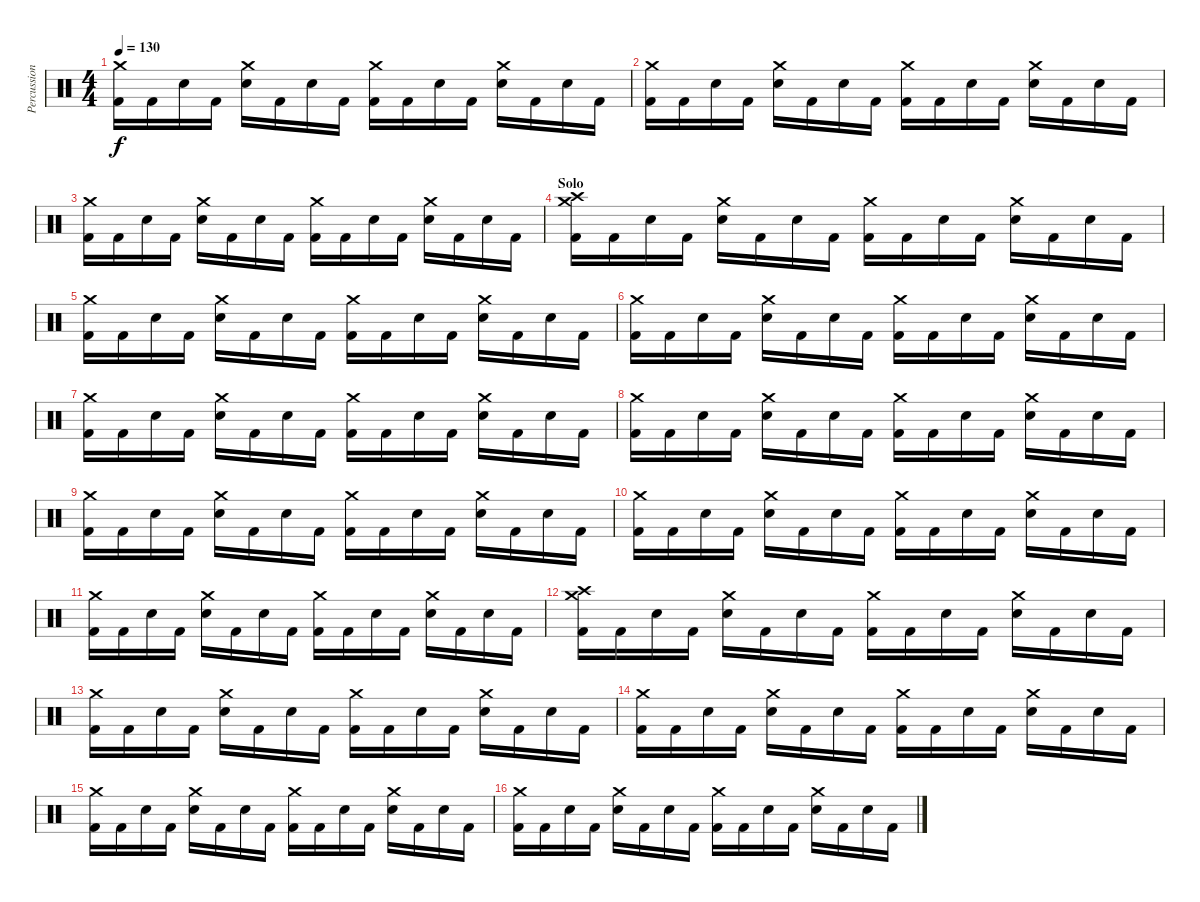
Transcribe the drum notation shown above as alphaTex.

\track ("Percussion" "Percussion") {instrument percussion}
\staff {score}
\articulation defaults
\ts (4 4)
\tempo 130
\clef neutral
\ks c
("Crash medium (hit)" "Kick (hit) 2").16{dy f} "Kick (hit) 2".16 "Snare (hit) 2".16 "Kick (hit) 2".16 ("Crash medium (hit)" "Snare (hit) 2").16 "Kick (hit) 2".16 "Snare (hit) 2".16 "Kick (hit) 2".16 ("Crash medium (hit)" "Kick (hit) 2").16 "Kick (hit) 2".16 "Snare (hit) 2".16 "Kick (hit) 2".16 ("Crash medium (hit)" "Snare (hit) 2").16 "Kick (hit) 2".16 "Snare (hit) 2".16 "Kick (hit) 2".16 |
("Crash medium (hit)" "Kick (hit) 2").16 "Kick (hit) 2".16 "Snare (hit) 2".16 "Kick (hit) 2".16 ("Crash medium (hit)" "Snare (hit) 2").16 "Kick (hit) 2".16 "Snare (hit) 2".16 "Kick (hit) 2".16 ("Crash medium (hit)" "Kick (hit) 2").16 "Kick (hit) 2".16 "Snare (hit) 2".16 "Kick (hit) 2".16 ("Crash medium (hit)" "Snare (hit) 2").16 "Kick (hit) 2".16 "Snare (hit) 2".16 "Kick (hit) 2".16 |
("Crash medium (hit)" "Kick (hit) 2").16 "Kick (hit) 2".16 "Snare (hit) 2".16 "Kick (hit) 2".16 ("Crash medium (hit)" "Snare (hit) 2").16 "Kick (hit) 2".16 "Snare (hit) 2".16 "Kick (hit) 2".16 ("Crash medium (hit)" "Kick (hit) 2").16 "Kick (hit) 2".16 "Snare (hit) 2".16 "Kick (hit) 2".16 ("Crash medium (hit)" "Snare (hit) 2").16 "Kick (hit) 2".16 "Snare (hit) 2".16 "Kick (hit) 2".16 |
\section ("" "Solo")
("Crash medium (hit)" "Crash high (hit)" "Kick (hit) 2").16 "Kick (hit) 2".16 "Snare (hit) 2".16 "Kick (hit) 2".16 ("Crash medium (hit)" "Snare (hit) 2").16 "Kick (hit) 2".16 "Snare (hit) 2".16 "Kick (hit) 2".16 ("Crash medium (hit)" "Kick (hit) 2").16 "Kick (hit) 2".16 "Snare (hit) 2".16 "Kick (hit) 2".16 ("Crash medium (hit)" "Snare (hit) 2").16 "Kick (hit) 2".16 "Snare (hit) 2".16 "Kick (hit) 2".16 |
("Crash medium (hit)" "Kick (hit) 2").16 "Kick (hit) 2".16 "Snare (hit) 2".16 "Kick (hit) 2".16 ("Crash medium (hit)" "Snare (hit) 2").16 "Kick (hit) 2".16 "Snare (hit) 2".16 "Kick (hit) 2".16 ("Crash medium (hit)" "Kick (hit) 2").16 "Kick (hit) 2".16 "Snare (hit) 2".16 "Kick (hit) 2".16 ("Crash medium (hit)" "Snare (hit) 2").16 "Kick (hit) 2".16 "Snare (hit) 2".16 "Kick (hit) 2".16 |
("Crash medium (hit)" "Kick (hit) 2").16 "Kick (hit) 2".16 "Snare (hit) 2".16 "Kick (hit) 2".16 ("Crash medium (hit)" "Snare (hit) 2").16 "Kick (hit) 2".16 "Snare (hit) 2".16 "Kick (hit) 2".16 ("Crash medium (hit)" "Kick (hit) 2").16 "Kick (hit) 2".16 "Snare (hit) 2".16 "Kick (hit) 2".16 ("Crash medium (hit)" "Snare (hit) 2").16 "Kick (hit) 2".16 "Snare (hit) 2".16 "Kick (hit) 2".16 |
("Crash medium (hit)" "Kick (hit) 2").16 "Kick (hit) 2".16 "Snare (hit) 2".16 "Kick (hit) 2".16 ("Crash medium (hit)" "Snare (hit) 2").16 "Kick (hit) 2".16 "Snare (hit) 2".16 "Kick (hit) 2".16 ("Crash medium (hit)" "Kick (hit) 2").16 "Kick (hit) 2".16 "Snare (hit) 2".16 "Kick (hit) 2".16 ("Crash medium (hit)" "Snare (hit) 2").16 "Kick (hit) 2".16 "Snare (hit) 2".16 "Kick (hit) 2".16 |
("Crash medium (hit)" "Kick (hit) 2").16 "Kick (hit) 2".16 "Snare (hit) 2".16 "Kick (hit) 2".16 ("Crash medium (hit)" "Snare (hit) 2").16 "Kick (hit) 2".16 "Snare (hit) 2".16 "Kick (hit) 2".16 ("Crash medium (hit)" "Kick (hit) 2").16 "Kick (hit) 2".16 "Snare (hit) 2".16 "Kick (hit) 2".16 ("Crash medium (hit)" "Snare (hit) 2").16 "Kick (hit) 2".16 "Snare (hit) 2".16 "Kick (hit) 2".16 |
("Crash medium (hit)" "Kick (hit) 2").16 "Kick (hit) 2".16 "Snare (hit) 2".16 "Kick (hit) 2".16 ("Crash medium (hit)" "Snare (hit) 2").16 "Kick (hit) 2".16 "Snare (hit) 2".16 "Kick (hit) 2".16 ("Crash medium (hit)" "Kick (hit) 2").16 "Kick (hit) 2".16 "Snare (hit) 2".16 "Kick (hit) 2".16 ("Crash medium (hit)" "Snare (hit) 2").16 "Kick (hit) 2".16 "Snare (hit) 2".16 "Kick (hit) 2".16 |
("Crash medium (hit)" "Kick (hit) 2").16 "Kick (hit) 2".16 "Snare (hit) 2".16 "Kick (hit) 2".16 ("Crash medium (hit)" "Snare (hit) 2").16 "Kick (hit) 2".16 "Snare (hit) 2".16 "Kick (hit) 2".16 ("Crash medium (hit)" "Kick (hit) 2").16 "Kick (hit) 2".16 "Snare (hit) 2".16 "Kick (hit) 2".16 ("Crash medium (hit)" "Snare (hit) 2").16 "Kick (hit) 2".16 "Snare (hit) 2".16 "Kick (hit) 2".16 |
("Crash medium (hit)" "Kick (hit) 2").16 "Kick (hit) 2".16 "Snare (hit) 2".16 "Kick (hit) 2".16 ("Crash medium (hit)" "Snare (hit) 2").16 "Kick (hit) 2".16 "Snare (hit) 2".16 "Kick (hit) 2".16 ("Crash medium (hit)" "Kick (hit) 2").16 "Kick (hit) 2".16 "Snare (hit) 2".16 "Kick (hit) 2".16 ("Crash medium (hit)" "Snare (hit) 2").16 "Kick (hit) 2".16 "Snare (hit) 2".16 "Kick (hit) 2".16 |
("Crash medium (hit)" "Crash high (hit)" "Kick (hit) 2").16 "Kick (hit) 2".16 "Snare (hit) 2".16 "Kick (hit) 2".16 ("Crash medium (hit)" "Snare (hit) 2").16 "Kick (hit) 2".16 "Snare (hit) 2".16 "Kick (hit) 2".16 ("Crash medium (hit)" "Kick (hit) 2").16 "Kick (hit) 2".16 "Snare (hit) 2".16 "Kick (hit) 2".16 ("Crash medium (hit)" "Snare (hit) 2").16 "Kick (hit) 2".16 "Snare (hit) 2".16 "Kick (hit) 2".16 |
("Crash medium (hit)" "Kick (hit) 2").16 "Kick (hit) 2".16 "Snare (hit) 2".16 "Kick (hit) 2".16 ("Crash medium (hit)" "Snare (hit) 2").16 "Kick (hit) 2".16 "Snare (hit) 2".16 "Kick (hit) 2".16 ("Crash medium (hit)" "Kick (hit) 2").16 "Kick (hit) 2".16 "Snare (hit) 2".16 "Kick (hit) 2".16 ("Crash medium (hit)" "Snare (hit) 2").16 "Kick (hit) 2".16 "Snare (hit) 2".16 "Kick (hit) 2".16 |
("Crash medium (hit)" "Kick (hit) 2").16 "Kick (hit) 2".16 "Snare (hit) 2".16 "Kick (hit) 2".16 ("Crash medium (hit)" "Snare (hit) 2").16 "Kick (hit) 2".16 "Snare (hit) 2".16 "Kick (hit) 2".16 ("Crash medium (hit)" "Kick (hit) 2").16 "Kick (hit) 2".16 "Snare (hit) 2".16 "Kick (hit) 2".16 ("Crash medium (hit)" "Snare (hit) 2").16 "Kick (hit) 2".16 "Snare (hit) 2".16 "Kick (hit) 2".16 |
("Crash medium (hit)" "Kick (hit) 2").16 "Kick (hit) 2".16 "Snare (hit) 2".16 "Kick (hit) 2".16 ("Crash medium (hit)" "Snare (hit) 2").16 "Kick (hit) 2".16 "Snare (hit) 2".16 "Kick (hit) 2".16 ("Crash medium (hit)" "Kick (hit) 2").16 "Kick (hit) 2".16 "Snare (hit) 2".16 "Kick (hit) 2".16 ("Crash medium (hit)" "Snare (hit) 2").16 "Kick (hit) 2".16 "Snare (hit) 2".16 "Kick (hit) 2".16 |
("Crash medium (hit)" "Kick (hit) 2").16 "Kick (hit) 2".16 "Snare (hit) 2".16 "Kick (hit) 2".16 ("Crash medium (hit)" "Snare (hit) 2").16 "Kick (hit) 2".16 "Snare (hit) 2".16 "Kick (hit) 2".16 ("Crash medium (hit)" "Kick (hit) 2").16 "Kick (hit) 2".16 "Snare (hit) 2".16 "Kick (hit) 2".16 ("Crash medium (hit)" "Snare (hit) 2").16 "Kick (hit) 2".16 "Snare (hit) 2".16 "Kick (hit) 2".16
